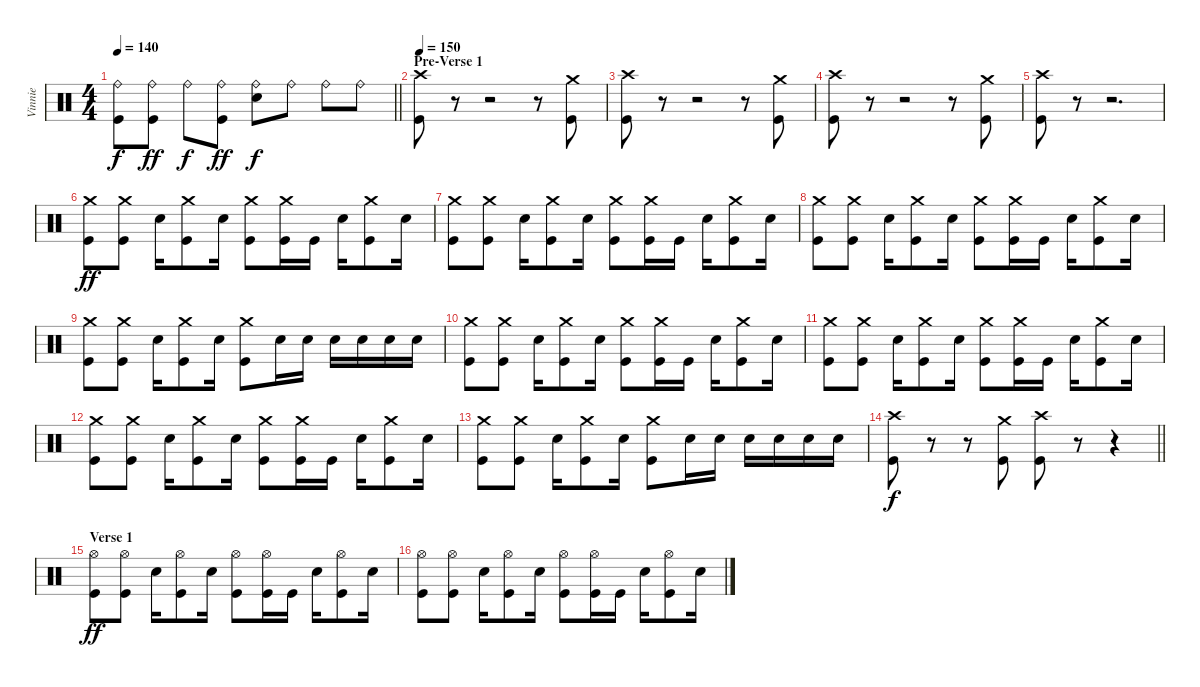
\track ("Vinnie" "Vinnie") {instrument percussion}
\staff {score}
\articulation defaults
\ts (4 4)
\tempo 140
\clef neutral
\barLineRight lightlight
\ks c
("Ride (bell)" "Kick (hit)").8{dy f} ("Ride (bell)" "Kick (hit)").8{dy ff} "Ride (bell)".8{dy f} ("Ride (bell)" "Kick (hit)").8{dy ff} ("Ride (bell)" "Electric Snare (hit)").8{dy f} "Ride (bell)".8 "Ride (bell)".8 "Ride (bell)".8 |
\section ("" "Pre-Verse 1")
\tempo 150
("Crash high (hit)" "Kick (hit)").8 r.8{volume 0} r.2 r.8 ("Crash medium (hit)" "Kick (hit)").8{volume 16} |
("Crash high (hit)" "Kick (hit)").8 r.8{volume 0} r.2 r.8 ("Crash medium (hit)" "Kick (hit)").8{volume 16} |
("Crash high (hit)" "Kick (hit)").8 r.8{volume 0} r.2 r.8 ("Crash medium (hit)" "Kick (hit)").8{volume 16} |
("Crash high (hit)" "Kick (hit)").8 r.8{volume 0} r.2{d} |
("Crash medium (hit)" "Kick (hit)").8{dy ff volume 16} ("Crash medium (hit)" "Kick (hit)").8 "Electric Snare (hit)".16 ("Crash medium (hit)" "Kick (hit)").8 "Electric Snare (hit)".16 ("Crash medium (hit)" "Kick (hit)").8 ("Crash medium (hit)" "Kick (hit)").16 "Kick (hit)".16 "Electric Snare (hit)".16 ("Crash medium (hit)" "Kick (hit)").8 "Electric Snare (hit)".16 |
("Crash medium (hit)" "Kick (hit)").8 ("Crash medium (hit)" "Kick (hit)").8 "Electric Snare (hit)".16 ("Crash medium (hit)" "Kick (hit)").8 "Electric Snare (hit)".16 ("Crash medium (hit)" "Kick (hit)").8 ("Crash medium (hit)" "Kick (hit)").16 "Kick (hit)".16 "Electric Snare (hit)".16 ("Crash medium (hit)" "Kick (hit)").8 "Electric Snare (hit)".16 |
("Crash medium (hit)" "Kick (hit)").8 ("Crash medium (hit)" "Kick (hit)").8 "Electric Snare (hit)".16 ("Crash medium (hit)" "Kick (hit)").8 "Electric Snare (hit)".16 ("Crash medium (hit)" "Kick (hit)").8 ("Crash medium (hit)" "Kick (hit)").16 "Kick (hit)".16 "Electric Snare (hit)".16 ("Crash medium (hit)" "Kick (hit)").8 "Electric Snare (hit)".16 |
("Crash medium (hit)" "Kick (hit)").8 ("Crash medium (hit)" "Kick (hit)").8 "Electric Snare (hit)".16 ("Crash medium (hit)" "Kick (hit)").8 "Electric Snare (hit)".16 ("Crash medium (hit)" "Kick (hit)").8 "Electric Snare (hit)".16 "Electric Snare (hit)".16 "Electric Snare (hit)".16 "Electric Snare (hit)".16 "Electric Snare (hit)".16 "Electric Snare (hit)".16 |
("Crash medium (hit)" "Kick (hit)").8 ("Crash medium (hit)" "Kick (hit)").8 "Electric Snare (hit)".16 ("Crash medium (hit)" "Kick (hit)").8 "Electric Snare (hit)".16 ("Crash medium (hit)" "Kick (hit)").8 ("Crash medium (hit)" "Kick (hit)").16 "Kick (hit)".16 "Electric Snare (hit)".16 ("Crash medium (hit)" "Kick (hit)").8 "Electric Snare (hit)".16 |
("Crash medium (hit)" "Kick (hit)").8 ("Crash medium (hit)" "Kick (hit)").8 "Electric Snare (hit)".16 ("Crash medium (hit)" "Kick (hit)").8 "Electric Snare (hit)".16 ("Crash medium (hit)" "Kick (hit)").8 ("Crash medium (hit)" "Kick (hit)").16 "Kick (hit)".16 "Electric Snare (hit)".16 ("Crash medium (hit)" "Kick (hit)").8 "Electric Snare (hit)".16 |
("Crash medium (hit)" "Kick (hit)").8 ("Crash medium (hit)" "Kick (hit)").8 "Electric Snare (hit)".16 ("Crash medium (hit)" "Kick (hit)").8 "Electric Snare (hit)".16 ("Crash medium (hit)" "Kick (hit)").8 ("Crash medium (hit)" "Kick (hit)").16 "Kick (hit)".16 "Electric Snare (hit)".16 ("Crash medium (hit)" "Kick (hit)").8 "Electric Snare (hit)".16 |
("Crash medium (hit)" "Kick (hit)").8 ("Crash medium (hit)" "Kick (hit)").8 "Electric Snare (hit)".16 ("Crash medium (hit)" "Kick (hit)").8 "Electric Snare (hit)".16 ("Crash medium (hit)" "Kick (hit)").8 "Electric Snare (hit)".16 "Electric Snare (hit)".16 "Electric Snare (hit)".16 "Electric Snare (hit)".16 "Electric Snare (hit)".16 "Electric Snare (hit)".16 |
\barLineRight lightlight
("Crash high (hit)" "Kick (hit)").8{dy f} r.8{volume 0} r.8 ("Crash medium (hit)" "Kick (hit)").8{volume 16} ("Crash high (hit)" "Kick (hit)").8 r.8{volume 0} r.4 |
\section ("" "Verse 1")
("Hi-Hat (open)" "Kick (hit)").8{dy ff volume 16} ("Hi-Hat (open)" "Kick (hit)").8 "Electric Snare (hit)".16 ("Hi-Hat (open)" "Kick (hit)").8 "Electric Snare (hit)".16 ("Hi-Hat (open)" "Kick (hit)").8 ("Hi-Hat (open)" "Kick (hit)").16 "Kick (hit)".16 "Electric Snare (hit)".16 ("Hi-Hat (open)" "Kick (hit)").8 "Electric Snare (hit)".16 |
("Hi-Hat (open)" "Kick (hit)").8 ("Hi-Hat (open)" "Kick (hit)").8 "Electric Snare (hit)".16 ("Hi-Hat (open)" "Kick (hit)").8 "Electric Snare (hit)".16 ("Hi-Hat (open)" "Kick (hit)").8 ("Hi-Hat (open)" "Kick (hit)").16 "Kick (hit)".16 "Electric Snare (hit)".16 ("Hi-Hat (open)" "Kick (hit)").8 "Electric Snare (hit)".16
